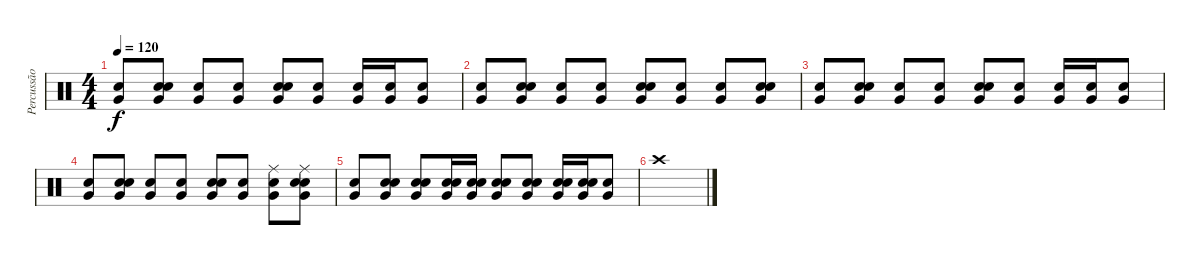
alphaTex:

\track ("Percussão" "Percussão") {instrument percussion}
\staff {score}
\articulation defaults
\ts (4 4)
\tempo 120
\clef neutral
\ks c
("Very Low Tom (hit)" "Snare (hit) 2").8{dy f} ("Very Low Tom (hit)" "Snare (hit) 2" "Electric Snare (hit)").8 ("Very Low Tom (hit)" "Snare (hit) 2").8 ("Very Low Tom (hit)" "Snare (hit) 2").8 ("Very Low Tom (hit)" "Snare (hit) 2" "Electric Snare (hit)").8 ("Very Low Tom (hit)" "Snare (hit) 2").8 ("Very Low Tom (hit)" "Snare (hit) 2").16 ("Very Low Tom (hit)" "Snare (hit) 2").16 ("Very Low Tom (hit)" "Electric Snare (hit)").8 |
("Snare (hit) 2" "Very Low Tom (hit)").8 ("Snare (hit) 2" "Electric Snare (hit)" "Very Low Tom (hit)").8 ("Snare (hit) 2" "Very Low Tom (hit)").8 ("Snare (hit) 2" "Very Low Tom (hit)").8 ("Snare (hit) 2" "Electric Snare (hit)" "Very Low Tom (hit)").8 ("Snare (hit) 2" "Very Low Tom (hit)").8 ("Snare (hit) 2" "Very Low Tom (hit)").8 ("Snare (hit) 2" "Electric Snare (hit)" "Very Low Tom (hit)").8 |
("Very Low Tom (hit)" "Snare (hit) 2").8 ("Very Low Tom (hit)" "Snare (hit) 2" "Electric Snare (hit)").8 ("Very Low Tom (hit)" "Snare (hit) 2").8 ("Very Low Tom (hit)" "Snare (hit) 2").8 ("Very Low Tom (hit)" "Snare (hit) 2" "Electric Snare (hit)").8 ("Very Low Tom (hit)" "Snare (hit) 2").8 ("Very Low Tom (hit)" "Snare (hit) 2").16 ("Very Low Tom (hit)" "Snare (hit) 2").16 ("Very Low Tom (hit)" "Electric Snare (hit)").8 |
("Snare (hit) 2" "Very Low Tom (hit)").8 ("Snare (hit) 2" "Electric Snare (hit)" "Very Low Tom (hit)").8 ("Snare (hit) 2" "Very Low Tom (hit)").8 ("Snare (hit) 2" "Very Low Tom (hit)").8 ("Snare (hit) 2" "Electric Snare (hit)" "Very Low Tom (hit)").8 ("Snare (hit) 2" "Very Low Tom (hit)").8 ("Ride (middle)" "Snare (hit) 2" "Very Low Tom (hit)").8 ("Ride (middle)" "Snare (hit) 2" "Electric Snare (hit)" "Very Low Tom (hit)").8 |
("Very Low Tom (hit)" "Snare (hit) 2").8 ("Very Low Tom (hit)" "Snare (hit) 2" "Electric Snare (hit)").8 ("Very Low Tom (hit)" "Snare (hit) 2" "Electric Snare (hit)").8 ("Very Low Tom (hit)" "Snare (hit) 2" "Electric Snare (hit)").16 ("Very Low Tom (hit)" "Snare (hit) 2" "Electric Snare (hit)").16 ("Very Low Tom (hit)" "Snare (hit) 2" "Electric Snare (hit)").8 ("Very Low Tom (hit)" "Snare (hit) 2" "Electric Snare (hit)").8 ("Very Low Tom (hit)" "Snare (hit) 2" "Electric Snare (hit)").16 ("Very Low Tom (hit)" "Snare (hit) 2" "Electric Snare (hit)").16 ("Very Low Tom (hit)" "Electric Snare (hit)").8 |
"Crash high (hit)".1
